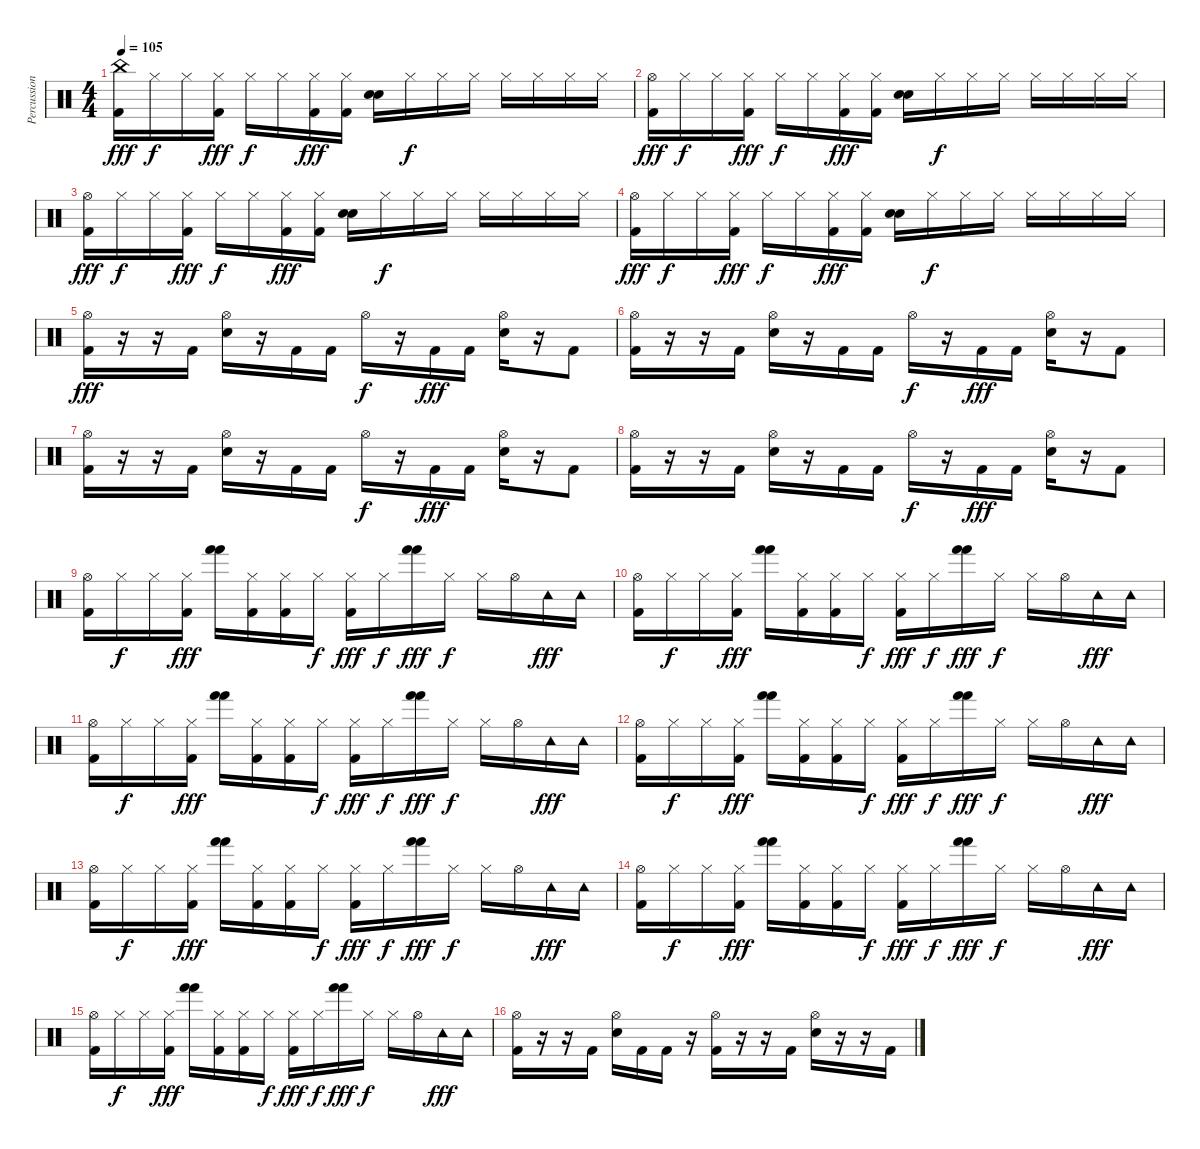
\track ("Percussions" "Percussion") {instrument percussion}
\staff {score}
\articulation defaults
\ts (4 4)
\tempo 105
\clef neutral
\ks c
("China (hit)" "Kick (hit) 2").16{dy fff} "Hi-Hat (closed)".16{dy f} "Hi-Hat (closed)".16 ("Hi-Hat (closed)" "Kick (hit) 2").16{dy fff} "Hi-Hat (closed)".16{dy f} "Hi-Hat (closed)".16 ("Hi-Hat (closed)" "Kick (hit) 2").16{dy fff} ("Hi-Hat (closed)" "Kick (hit) 2").16 ("Electric Snare (hit)" "Electric Snare (hit)").16 "Hi-Hat (closed)".16{dy f} "Hi-Hat (closed)".16 "Hi-Hat (closed)".16 "Hi-Hat (closed)".16 "Hi-Hat (closed)".16 "Hi-Hat (closed)".16 "Hi-Hat (closed)".16 |
("Hi-Hat (open)" "Kick (hit) 2").16{dy fff} "Hi-Hat (closed)".16{dy f} "Hi-Hat (closed)".16 ("Hi-Hat (closed)" "Kick (hit) 2").16{dy fff} "Hi-Hat (closed)".16{dy f} "Hi-Hat (closed)".16 ("Hi-Hat (closed)" "Kick (hit) 2").16{dy fff} ("Hi-Hat (closed)" "Kick (hit) 2").16 ("Electric Snare (hit)" "Electric Snare (hit)").16 "Hi-Hat (closed)".16{dy f} "Hi-Hat (closed)".16 "Hi-Hat (closed)".16 "Hi-Hat (closed)".16 "Hi-Hat (closed)".16 "Hi-Hat (closed)".16 "Hi-Hat (closed)".16 |
("Hi-Hat (open)" "Kick (hit) 2").16{dy fff} "Hi-Hat (closed)".16{dy f} "Hi-Hat (closed)".16 ("Hi-Hat (closed)" "Kick (hit) 2").16{dy fff} "Hi-Hat (closed)".16{dy f} "Hi-Hat (closed)".16 ("Hi-Hat (closed)" "Kick (hit) 2").16{dy fff} ("Hi-Hat (closed)" "Kick (hit) 2").16 ("Electric Snare (hit)" "Electric Snare (hit)").16 "Hi-Hat (closed)".16{dy f} "Hi-Hat (closed)".16 "Hi-Hat (closed)".16 "Hi-Hat (closed)".16 "Hi-Hat (closed)".16 "Hi-Hat (closed)".16 "Hi-Hat (closed)".16 |
("Hi-Hat (open)" "Kick (hit) 2").16{dy fff} "Hi-Hat (closed)".16{dy f} "Hi-Hat (closed)".16 ("Hi-Hat (closed)" "Kick (hit) 2").16{dy fff} "Hi-Hat (closed)".16{dy f} "Hi-Hat (closed)".16 ("Hi-Hat (closed)" "Kick (hit) 2").16{dy fff} ("Hi-Hat (closed)" "Kick (hit) 2").16 ("Electric Snare (hit)" "Electric Snare (hit)").16 "Hi-Hat (closed)".16{dy f} "Hi-Hat (closed)".16 "Hi-Hat (closed)".16 "Hi-Hat (closed)".16 "Hi-Hat (closed)".16 "Hi-Hat (closed)".16 "Hi-Hat (closed)".16 |
("Hi-Hat (open)" "Kick (hit) 2").16{dy fff} r.16 r.16 "Kick (hit) 2".16 ("Hi-Hat (open)" "Electric Snare (hit)").16 r.16 "Kick (hit) 2".16 "Kick (hit) 2".16 "Hi-Hat (open)".16{dy f} r.16 "Kick (hit) 2".16{dy fff} "Kick (hit) 2".16 ("Hi-Hat (open)" "Electric Snare (hit)").16 r.16 "Kick (hit) 2".8 |
("Hi-Hat (open)" "Kick (hit) 2").16 r.16 r.16 "Kick (hit) 2".16 ("Hi-Hat (open)" "Electric Snare (hit)").16 r.16 "Kick (hit) 2".16 "Kick (hit) 2".16 "Hi-Hat (open)".16{dy f} r.16 "Kick (hit) 2".16{dy fff} "Kick (hit) 2".16 ("Hi-Hat (open)" "Electric Snare (hit)").16 r.16 "Kick (hit) 2".8 |
("Hi-Hat (open)" "Kick (hit) 2").16 r.16 r.16 "Kick (hit) 2".16 ("Hi-Hat (open)" "Electric Snare (hit)").16 r.16 "Kick (hit) 2".16 "Kick (hit) 2".16 "Hi-Hat (open)".16{dy f} r.16 "Kick (hit) 2".16{dy fff} "Kick (hit) 2".16 ("Hi-Hat (open)" "Electric Snare (hit)").16 r.16 "Kick (hit) 2".8 |
("Hi-Hat (open)" "Kick (hit) 2").16 r.16 r.16 "Kick (hit) 2".16 ("Hi-Hat (open)" "Electric Snare (hit)").16 r.16 "Kick (hit) 2".16 "Kick (hit) 2".16 "Hi-Hat (open)".16{dy f} r.16 "Kick (hit) 2".16{dy fff} "Kick (hit) 2".16 ("Hi-Hat (open)" "Electric Snare (hit)").16 r.16 "Kick (hit) 2".8 |
("Hi-Hat (open)" "Kick (hit) 2").16 "Hi-Hat (closed)".16{dy f} "Hi-Hat (closed)".16 ("Hi-Hat (closed)" "Kick (hit) 2").16{dy fff} ("Hand (hit)" "Hand (hit)").16 ("Hi-Hat (closed)" "Kick (hit) 2").16 ("Hi-Hat (closed)" "Kick (hit) 2").16 "Hi-Hat (closed)".16{dy f} ("Hi-Hat (closed)" "Kick (hit) 2").16{dy fff} "Hi-Hat (closed)".16{dy f} ("Hand (hit)" "Hand (hit)").16{dy fff} "Hi-Hat (closed)".16{dy f} "Hi-Hat (closed)".16 "Hi-Hat (open)".16 "Tambourine (hit)".16{dy fff} "Tambourine (hit)".16 |
("Hi-Hat (open)" "Kick (hit) 2").16 "Hi-Hat (closed)".16{dy f} "Hi-Hat (closed)".16 ("Hi-Hat (closed)" "Kick (hit) 2").16{dy fff} ("Hand (hit)" "Hand (hit)").16 ("Hi-Hat (closed)" "Kick (hit) 2").16 ("Hi-Hat (closed)" "Kick (hit) 2").16 "Hi-Hat (closed)".16{dy f} ("Hi-Hat (closed)" "Kick (hit) 2").16{dy fff} "Hi-Hat (closed)".16{dy f} ("Hand (hit)" "Hand (hit)").16{dy fff} "Hi-Hat (closed)".16{dy f} "Hi-Hat (closed)".16 "Hi-Hat (open)".16 "Tambourine (hit)".16{dy fff} "Tambourine (hit)".16 |
("Hi-Hat (open)" "Kick (hit) 2").16 "Hi-Hat (closed)".16{dy f} "Hi-Hat (closed)".16 ("Hi-Hat (closed)" "Kick (hit) 2").16{dy fff} ("Hand (hit)" "Hand (hit)").16 ("Hi-Hat (closed)" "Kick (hit) 2").16 ("Hi-Hat (closed)" "Kick (hit) 2").16 "Hi-Hat (closed)".16{dy f} ("Hi-Hat (closed)" "Kick (hit) 2").16{dy fff} "Hi-Hat (closed)".16{dy f} ("Hand (hit)" "Hand (hit)").16{dy fff} "Hi-Hat (closed)".16{dy f} "Hi-Hat (closed)".16 "Hi-Hat (open)".16 "Tambourine (hit)".16{dy fff} "Tambourine (hit)".16 |
("Hi-Hat (open)" "Kick (hit) 2").16 "Hi-Hat (closed)".16{dy f} "Hi-Hat (closed)".16 ("Hi-Hat (closed)" "Kick (hit) 2").16{dy fff} ("Hand (hit)" "Hand (hit)").16 ("Hi-Hat (closed)" "Kick (hit) 2").16 ("Hi-Hat (closed)" "Kick (hit) 2").16 "Hi-Hat (closed)".16{dy f} ("Hi-Hat (closed)" "Kick (hit) 2").16{dy fff} "Hi-Hat (closed)".16{dy f} ("Hand (hit)" "Hand (hit)").16{dy fff} "Hi-Hat (closed)".16{dy f} "Hi-Hat (closed)".16 "Hi-Hat (open)".16 "Tambourine (hit)".16{dy fff} "Tambourine (hit)".16 |
("Hi-Hat (open)" "Kick (hit) 2").16 "Hi-Hat (closed)".16{dy f} "Hi-Hat (closed)".16 ("Hi-Hat (closed)" "Kick (hit) 2").16{dy fff} ("Hand (hit)" "Hand (hit)").16 ("Hi-Hat (closed)" "Kick (hit) 2").16 ("Hi-Hat (closed)" "Kick (hit) 2").16 "Hi-Hat (closed)".16{dy f} ("Hi-Hat (closed)" "Kick (hit) 2").16{dy fff} "Hi-Hat (closed)".16{dy f} ("Hand (hit)" "Hand (hit)").16{dy fff} "Hi-Hat (closed)".16{dy f} "Hi-Hat (closed)".16 "Hi-Hat (open)".16 "Tambourine (hit)".16{dy fff} "Tambourine (hit)".16 |
("Hi-Hat (open)" "Kick (hit) 2").16 "Hi-Hat (closed)".16{dy f} "Hi-Hat (closed)".16 ("Hi-Hat (closed)" "Kick (hit) 2").16{dy fff} ("Hand (hit)" "Hand (hit)").16 ("Hi-Hat (closed)" "Kick (hit) 2").16 ("Hi-Hat (closed)" "Kick (hit) 2").16 "Hi-Hat (closed)".16{dy f} ("Hi-Hat (closed)" "Kick (hit) 2").16{dy fff} "Hi-Hat (closed)".16{dy f} ("Hand (hit)" "Hand (hit)").16{dy fff} "Hi-Hat (closed)".16{dy f} "Hi-Hat (closed)".16 "Hi-Hat (open)".16 "Tambourine (hit)".16{dy fff} "Tambourine (hit)".16 |
("Hi-Hat (open)" "Kick (hit) 2").16 "Hi-Hat (closed)".16{dy f} "Hi-Hat (closed)".16 ("Hi-Hat (closed)" "Kick (hit) 2").16{dy fff} ("Hand (hit)" "Hand (hit)").16 ("Hi-Hat (closed)" "Kick (hit) 2").16 ("Hi-Hat (closed)" "Kick (hit) 2").16 "Hi-Hat (closed)".16{dy f} ("Hi-Hat (closed)" "Kick (hit) 2").16{dy fff} "Hi-Hat (closed)".16{dy f} ("Hand (hit)" "Hand (hit)").16{dy fff} "Hi-Hat (closed)".16{dy f} "Hi-Hat (closed)".16 "Hi-Hat (open)".16 "Tambourine (hit)".16{dy fff} "Tambourine (hit)".16 |
("Hi-Hat (open)" "Kick (hit) 2").16 r.16 r.16 "Kick (hit) 2".16 ("Hi-Hat (open)" "Electric Snare (hit)").16 "Kick (hit) 2".16 "Kick (hit) 2".16 r.16 ("Hi-Hat (open)" "Kick (hit) 2").16 r.16 r.16 "Kick (hit) 2".16 ("Hi-Hat (open)" "Electric Snare (hit)").16 r.16 r.16 "Kick (hit) 2".16
